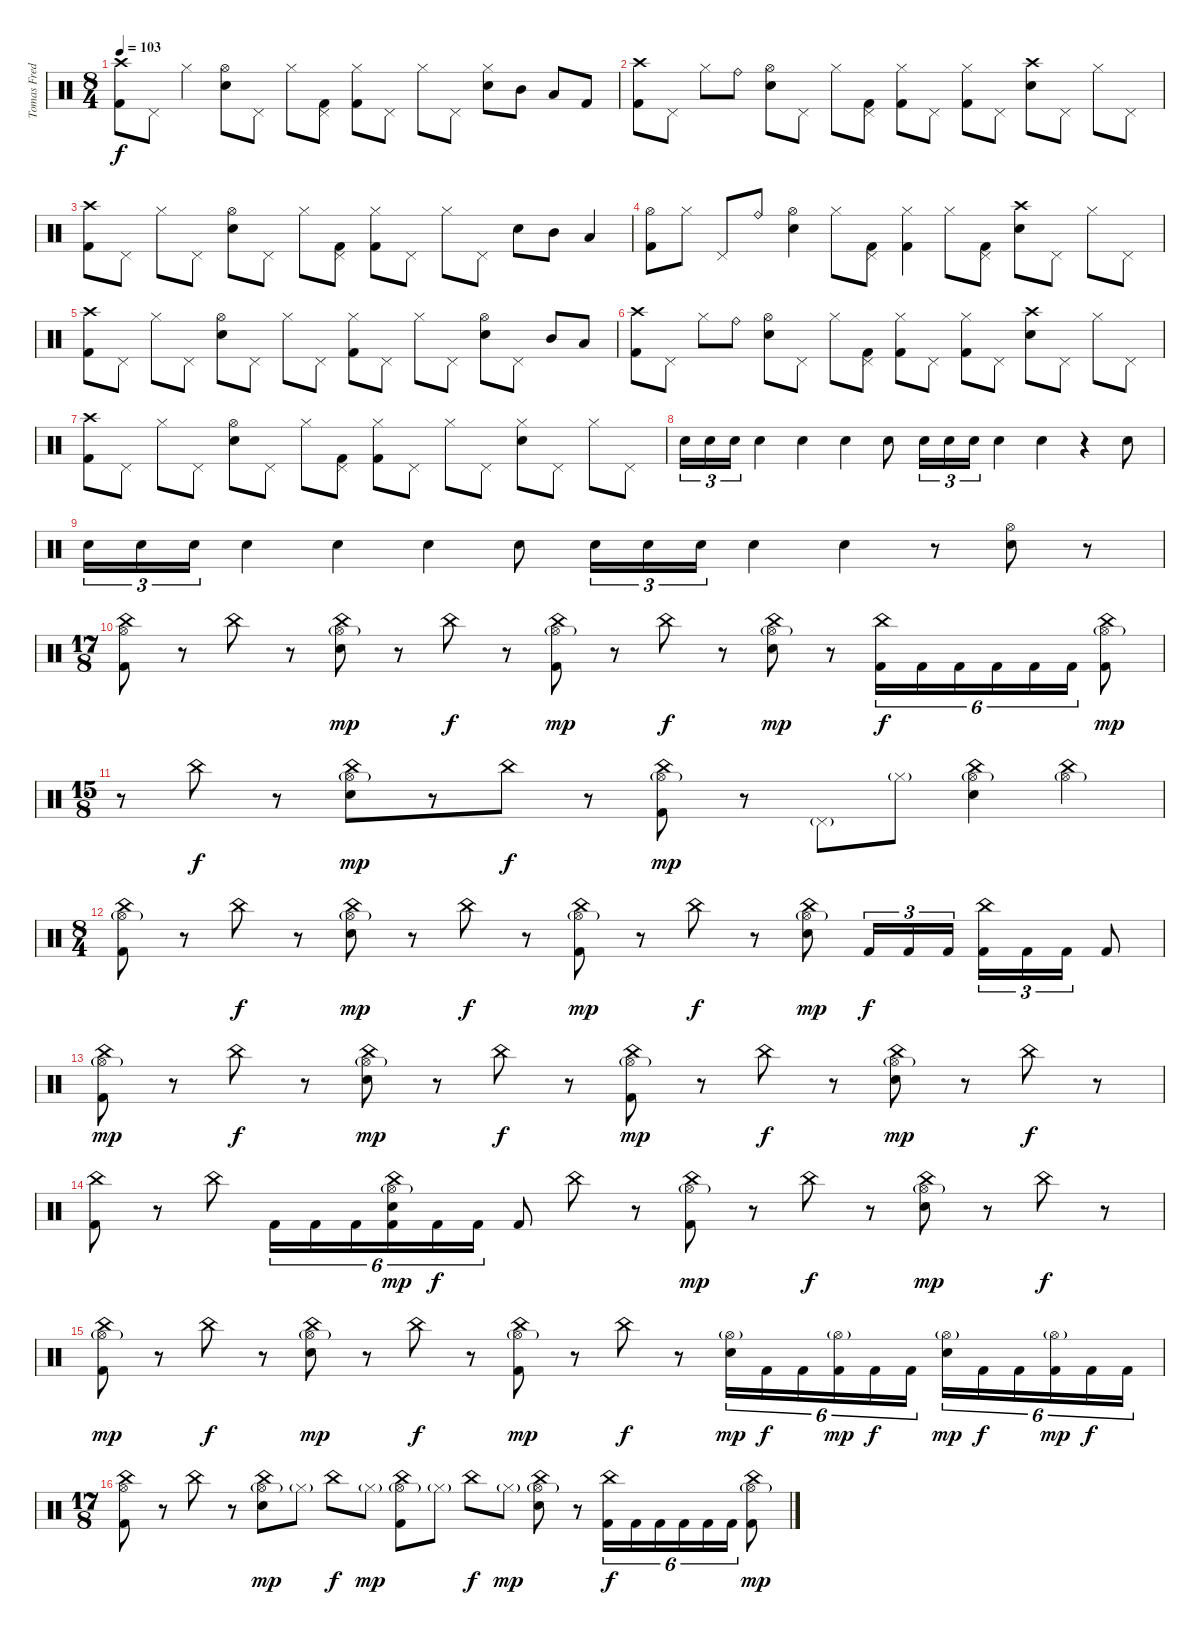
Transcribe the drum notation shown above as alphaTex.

\track ("Tomas Fredén - drums  " "Tomas Fred") {instrument percussion}
\staff {score}
\articulation defaults
\ts (8 4)
\tempo 103
\clef neutral
\ks c
("Crash high (hit)" "Kick (hit) 2").8{dy f} "Pedal Hi-Hat (hit)".8 "Hi-Hat (closed)".4 ("Hi-Hat (open)" "Snare (hit) 2").8 "Pedal Hi-Hat (hit)".8 "Hi-Hat (closed)".8 ("Pedal Hi-Hat (hit)" "Kick (hit) 2").8 ("Hi-Hat (closed)" "Kick (hit) 2").8 "Pedal Hi-Hat (hit)".8 "Hi-Hat (closed)".8 "Pedal Hi-Hat (hit)".8 ("Hi-Hat (closed)" "Snare (hit) 2").8 "Mid Tom (hit)".8 "Low Tom (hit)".8 "Kick (hit) 2".8 |
("Crash high (hit)" "Kick (hit) 2").8 "Pedal Hi-Hat (hit)".8 "Hi-Hat (closed)".8 "Ride (bell)".8 ("Hi-Hat (open)" "Snare (hit) 2").8 "Pedal Hi-Hat (hit)".8 "Hi-Hat (closed)".8 ("Pedal Hi-Hat (hit)" "Kick (hit) 2").8 ("Hi-Hat (closed)" "Kick (hit) 2").8 "Pedal Hi-Hat (hit)".8 ("Hi-Hat (closed)" "Kick (hit) 2").8 "Pedal Hi-Hat (hit)".8 ("Crash high (hit)" "Snare (hit) 2").8 "Pedal Hi-Hat (hit)".8 "Hi-Hat (closed)".8 "Pedal Hi-Hat (hit)".8 |
("Crash high (hit)" "Kick (hit) 2").8 "Pedal Hi-Hat (hit)".8 "Hi-Hat (closed)".8 "Pedal Hi-Hat (hit)".8 ("Hi-Hat (open)" "Snare (hit) 2").8 "Pedal Hi-Hat (hit)".8 "Hi-Hat (closed)".8 ("Pedal Hi-Hat (hit)" "Kick (hit) 2").8 ("Hi-Hat (closed)" "Kick (hit) 2").8 "Pedal Hi-Hat (hit)".8 "Hi-Hat (closed)".8 "Pedal Hi-Hat (hit)".8 "Snare (hit) 2".8 "Mid Tom (hit)".8 "Low Tom (hit)".4 |
("Hi-Hat (open)" "Kick (hit) 2").8 "Hi-Hat (closed)".8 "Pedal Hi-Hat (hit)".8 "Ride (bell)".8 ("Hi-Hat (open)" "Snare (hit) 2").4 "Hi-Hat (closed)".8 ("Pedal Hi-Hat (hit)" "Kick (hit) 2").8 ("Hi-Hat (closed)" "Kick (hit) 2").4 "Hi-Hat (closed)".8 ("Pedal Hi-Hat (hit)" "Kick (hit) 2").8 ("Crash high (hit)" "Snare (hit) 2").8 "Pedal Hi-Hat (hit)".8 "Hi-Hat (closed)".8 "Pedal Hi-Hat (hit)".8 |
("Crash high (hit)" "Kick (hit) 2").8 "Pedal Hi-Hat (hit)".8 "Hi-Hat (closed)".8 "Pedal Hi-Hat (hit)".8 ("Hi-Hat (open)" "Snare (hit) 2").8 "Pedal Hi-Hat (hit)".8 "Hi-Hat (closed)".8 "Pedal Hi-Hat (hit)".8 ("Hi-Hat (closed)" "Kick (hit) 2").8 "Pedal Hi-Hat (hit)".8 "Hi-Hat (closed)".8 "Pedal Hi-Hat (hit)".8 ("Hi-Hat (open)" "Snare (hit) 2").8 "Pedal Hi-Hat (hit)".8 "Mid Tom (hit)".8 "Low Tom (hit)".8 |
("Crash high (hit)" "Kick (hit) 2").8 "Pedal Hi-Hat (hit)".8 "Hi-Hat (closed)".8 "Ride (bell)".8 ("Hi-Hat (open)" "Snare (hit) 2").8 "Pedal Hi-Hat (hit)".8 "Hi-Hat (closed)".8 ("Pedal Hi-Hat (hit)" "Kick (hit) 2").8 ("Hi-Hat (closed)" "Kick (hit) 2").8 "Pedal Hi-Hat (hit)".8 ("Hi-Hat (closed)" "Kick (hit) 2").8 "Pedal Hi-Hat (hit)".8 ("Crash high (hit)" "Snare (hit) 2").8 "Pedal Hi-Hat (hit)".8 "Hi-Hat (closed)".8 "Pedal Hi-Hat (hit)".8 |
("Crash high (hit)" "Kick (hit) 2").8 "Pedal Hi-Hat (hit)".8 "Hi-Hat (closed)".8 "Pedal Hi-Hat (hit)".8 ("Hi-Hat (open)" "Snare (hit) 2").8 "Pedal Hi-Hat (hit)".8 "Hi-Hat (closed)".8 ("Pedal Hi-Hat (hit)" "Kick (hit) 2").8 ("Hi-Hat (closed)" "Kick (hit) 2").8 "Pedal Hi-Hat (hit)".8 "Hi-Hat (closed)".8 "Pedal Hi-Hat (hit)".8 ("Hi-Hat (closed)" "Snare (hit) 2").8 "Pedal Hi-Hat (hit)".8 "Hi-Hat (closed)".8 "Pedal Hi-Hat (hit)".8 |
"Snare (hit) 2".16{tu (3 2)} "Snare (hit) 2".16{tu (3 2)} "Snare (hit) 2".16{tu (3 2)} "Snare (hit) 2".4 "Snare (hit) 2".4 "Snare (hit) 2".4 "Snare (hit) 2".8 "Snare (hit) 2".16{tu (3 2)} "Snare (hit) 2".16{tu (3 2)} "Snare (hit) 2".16{tu (3 2)} "Snare (hit) 2".4 "Snare (hit) 2".4 r.4 "Snare (hit) 2".8 |
"Snare (hit) 2".16{tu (3 2)} "Snare (hit) 2".16{tu (3 2)} "Snare (hit) 2".16{tu (3 2)} "Snare (hit) 2".4 "Snare (hit) 2".4 "Snare (hit) 2".4 "Snare (hit) 2".8 "Snare (hit) 2".16{tu (3 2)} "Snare (hit) 2".16{tu (3 2)} "Snare (hit) 2".16{tu (3 2)} "Snare (hit) 2".4 "Snare (hit) 2".4 r.8 ("Hi-Hat (open)" "Snare (hit) 2").8 r.8 |
\ts (17 8)
("China (hit)" "Hi-Hat (open)" "Kick (hit) 2").8 r.8 "China (hit)".8 r.8 ("China (hit)" "Hi-Hat (open)"{g} "Snare (hit) 2").8{dy mp} r.8 "China (hit)".8{dy f} r.8 ("China (hit)" "Hi-Hat (open)"{g} "Kick (hit) 2").8{dy mp} r.8 "China (hit)".8{dy f} r.8 ("China (hit)" "Hi-Hat (open)"{g} "Snare (hit) 2").8{dy mp} r.8 ("China (hit)" "Kick (hit) 2").16{tu (6 4) dy f} "Kick (hit) 2".16{tu (6 4)} "Kick (hit) 2".16{tu (6 4)} "Kick (hit) 2".16{tu (6 4)} "Kick (hit) 2".16{tu (6 4)} "Kick (hit) 2".16{tu (6 4)} ("China (hit)" "Hi-Hat (open)"{g} "Kick (hit) 2").8{dy mp} |
\ts (15 8)
r.8 "China (hit)".8{dy f} r.8 ("China (hit)" "Hi-Hat (open)"{g} "Snare (hit) 2").8{dy mp} r.8 "China (hit)".8{dy f} r.8 ("China (hit)" "Hi-Hat (open)"{g} "Kick (hit) 2").8{dy mp} r.8 "Pedal Hi-Hat (hit)"{g}.8 "Hi-Hat (closed)"{g}.8 ("China (hit)" "Hi-Hat (open)"{g} "Snare (hit) 2").4 ("China (hit)" "Hi-Hat (open)"{g}).4 |
\ts (8 4)
("China (hit)" "Hi-Hat (open)"{g} "Kick (hit) 2").8 r.8 "China (hit)".8{dy f} r.8 ("China (hit)" "Hi-Hat (open)"{g} "Snare (hit) 2").8{dy mp} r.8 "China (hit)".8{dy f} r.8 ("China (hit)" "Hi-Hat (open)"{g} "Kick (hit) 2").8{dy mp} r.8 "China (hit)".8{dy f} r.8 ("China (hit)" "Hi-Hat (open)"{g} "Snare (hit) 2").8{dy mp} "Kick (hit) 2".16{tu (3 2) dy f} "Kick (hit) 2".16{tu (3 2)} "Kick (hit) 2".16{tu (3 2)} ("China (hit)" "Kick (hit) 2").16{tu (3 2)} "Kick (hit) 2".16{tu (3 2)} "Kick (hit) 2".16{tu (3 2)} "Kick (hit) 2".8 |
("China (hit)" "Hi-Hat (open)"{g} "Kick (hit) 2").8{dy mp} r.8 "China (hit)".8{dy f} r.8 ("China (hit)" "Hi-Hat (open)"{g} "Snare (hit) 2").8{dy mp} r.8 "China (hit)".8{dy f} r.8 ("China (hit)" "Hi-Hat (open)"{g} "Kick (hit) 2").8{dy mp} r.8 "China (hit)".8{dy f} r.8 ("China (hit)" "Hi-Hat (open)"{g} "Snare (hit) 2").8{dy mp} r.8 "China (hit)".8{dy f} r.8 |
("China (hit)" "Kick (hit) 2").8 r.8 "China (hit)".8 "Kick (hit) 2".16{tu (6 4)} "Kick (hit) 2".16{tu (6 4)} "Kick (hit) 2".16{tu (6 4)} ("China (hit)" "Hi-Hat (open)"{g} "Snare (hit) 2" "Kick (hit) 2").16{tu (6 4) dy mp} "Kick (hit) 2".16{tu (6 4) dy f} "Kick (hit) 2".16{tu (6 4)} "Kick (hit) 2".8 "China (hit)".8 r.8 ("China (hit)" "Hi-Hat (open)"{g} "Kick (hit) 2").8{dy mp} r.8 "China (hit)".8{dy f} r.8 ("China (hit)" "Hi-Hat (open)"{g} "Snare (hit) 2").8{dy mp} r.8 "China (hit)".8{dy f} r.8 |
("China (hit)" "Hi-Hat (open)"{g} "Kick (hit) 2").8{dy mp} r.8 "China (hit)".8{dy f} r.8 ("China (hit)" "Hi-Hat (open)"{g} "Snare (hit) 2").8{dy mp} r.8 "China (hit)".8{dy f} r.8 ("China (hit)" "Hi-Hat (open)"{g} "Kick (hit) 2").8{dy mp} r.8 "China (hit)".8{dy f} r.8 ("Hi-Hat (open)"{g} "Snare (hit) 2").16{tu (6 4) dy mp} "Kick (hit) 2".16{tu (6 4) dy f} "Kick (hit) 2".16{tu (6 4)} ("Hi-Hat (open)"{g} "Kick (hit) 2").16{tu (6 4) dy mp} "Kick (hit) 2".16{tu (6 4) dy f} "Kick (hit) 2".16{tu (6 4)} ("Hi-Hat (open)"{g} "Snare (hit) 2").16{tu (6 4) dy mp} "Kick (hit) 2".16{tu (6 4) dy f} "Kick (hit) 2".16{tu (6 4)} ("Hi-Hat (open)"{g} "Kick (hit) 2").16{tu (6 4) dy mp} "Kick (hit) 2".16{tu (6 4) dy f} "Kick (hit) 2".16{tu (6 4)} |
\ts (17 8)
("China (hit)" "Hi-Hat (open)" "Kick (hit) 2").8 r.8 "China (hit)".8 r.8 ("China (hit)" "Hi-Hat (open)"{g} "Snare (hit) 2").8{dy mp} "Hi-Hat (closed)"{g}.8 "China (hit)".8{dy f} "Hi-Hat (closed)"{g}.8{dy mp} ("China (hit)" "Hi-Hat (open)"{g} "Kick (hit) 2").8 "Hi-Hat (closed)"{g}.8 "China (hit)".8{dy f} "Hi-Hat (closed)"{g}.8{dy mp} ("China (hit)" "Hi-Hat (open)"{g} "Snare (hit) 2").8 r.8 ("China (hit)" "Kick (hit) 2").16{tu (6 4) dy f} "Kick (hit) 2".16{tu (6 4)} "Kick (hit) 2".16{tu (6 4)} "Kick (hit) 2".16{tu (6 4)} "Kick (hit) 2".16{tu (6 4)} "Kick (hit) 2".16{tu (6 4)} ("China (hit)" "Hi-Hat (open)"{g} "Kick (hit) 2").8{dy mp}
